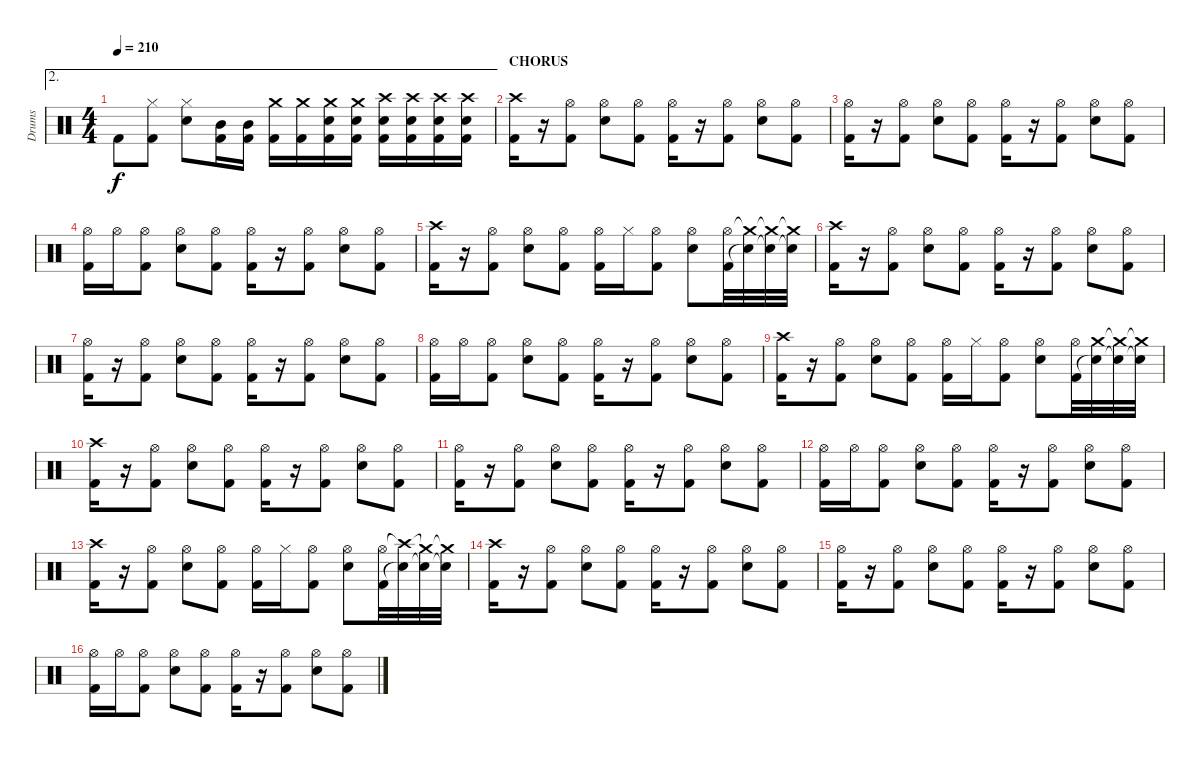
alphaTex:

\track ("Drums" "Drums") {instrument percussion}
\staff {score}
\articulation defaults
\ae 2
\ts (4 4)
\tempo 210
\clef neutral
\ks c "Kick (hit) 2".8{dy f}
("Hi-Hat (closed)" "Kick (hit) 2").8 ("Hi-Hat (closed)" "Electric Snare (hit)").8 ("Mid Tom (hit)" "Kick (hit) 2").16 ("Mid Tom (hit)" "Kick (hit) 2").16 ("Crash medium (hit)" "Kick (hit) 2").16 ("Crash medium (hit)" "Kick (hit) 2").16 ("Crash medium (hit)" "Electric Snare (hit)" "Kick (hit) 2").16 ("Crash medium (hit)" "Electric Snare (hit)" "Kick (hit) 2").16 ("Crash high (hit)" "Electric Snare (hit)" "Kick (hit) 2").16 ("Crash high (hit)" "Electric Snare (hit)" "Kick (hit) 2").16 ("Crash high (hit)" "Electric Snare (hit)" "Kick (hit) 2").16 ("Crash high (hit)" "Electric Snare (hit)" "Kick (hit) 2").16 |
\section ("" "CHORUS")
("Crash high (hit)" "Kick (hit) 2").16 r.16 ("Hi-Hat (open)" "Kick (hit) 2").8 ("Hi-Hat (open)" "Electric Snare (hit)").8 ("Hi-Hat (open)" "Kick (hit) 2").8 ("Hi-Hat (open)" "Kick (hit) 2").16 r.16 ("Hi-Hat (open)" "Kick (hit) 2").8 ("Hi-Hat (open)" "Electric Snare (hit)").8 ("Hi-Hat (open)" "Kick (hit) 2").8 |
("Hi-Hat (open)" "Kick (hit) 2").16 r.16 ("Hi-Hat (open)" "Kick (hit) 2").8 ("Hi-Hat (open)" "Electric Snare (hit)").8 ("Hi-Hat (open)" "Kick (hit) 2").8 ("Hi-Hat (open)" "Kick (hit) 2").16 r.16 ("Hi-Hat (open)" "Kick (hit) 2").8 ("Hi-Hat (open)" "Electric Snare (hit)").8 ("Hi-Hat (open)" "Kick (hit) 2").8 |
("Hi-Hat (open)" "Kick (hit) 2").16 "Hi-Hat (open)".16 ("Hi-Hat (open)" "Kick (hit) 2").8 ("Hi-Hat (open)" "Electric Snare (hit)").8 ("Hi-Hat (open)" "Kick (hit) 2").8 ("Hi-Hat (open)" "Kick (hit) 2").16 r.16 ("Hi-Hat (open)" "Kick (hit) 2").8 ("Hi-Hat (open)" "Electric Snare (hit)").8 ("Hi-Hat (open)" "Kick (hit) 2").8 |
("Crash high (hit)" "Kick (hit) 2").16 r.16 ("Hi-Hat (open)" "Kick (hit) 2").8 ("Hi-Hat (open)" "Electric Snare (hit)").8 ("Hi-Hat (open)" "Kick (hit) 2").8 ("Hi-Hat (open)" "Kick (hit) 2").16 "Hi-Hat (closed)".16 ("Hi-Hat (open)" "Kick (hit) 2").8 ("Hi-Hat (open)" "Electric Snare (hit)").8 ("Hi-Hat (open)" "Kick (hit) 2").32 ("Crash medium (hit)"{t} "Electric Snare (hit)"{t}).32 ("Crash medium (hit)"{t} "Electric Snare (hit)"{t}).32 ("Crash medium (hit)"{t} "Electric Snare (hit)"{t}).32 |
("Crash high (hit)" "Kick (hit) 2").16 r.16 ("Hi-Hat (open)" "Kick (hit) 2").8 ("Hi-Hat (open)" "Electric Snare (hit)").8 ("Hi-Hat (open)" "Kick (hit) 2").8 ("Hi-Hat (open)" "Kick (hit) 2").16 r.16 ("Hi-Hat (open)" "Kick (hit) 2").8 ("Hi-Hat (open)" "Electric Snare (hit)").8 ("Hi-Hat (open)" "Kick (hit) 2").8 |
("Hi-Hat (open)" "Kick (hit) 2").16 r.16 ("Hi-Hat (open)" "Kick (hit) 2").8 ("Hi-Hat (open)" "Electric Snare (hit)").8 ("Hi-Hat (open)" "Kick (hit) 2").8 ("Hi-Hat (open)" "Kick (hit) 2").16 r.16 ("Hi-Hat (open)" "Kick (hit) 2").8 ("Hi-Hat (open)" "Electric Snare (hit)").8 ("Hi-Hat (open)" "Kick (hit) 2").8 |
("Hi-Hat (open)" "Kick (hit) 2").16 "Hi-Hat (open)".16 ("Hi-Hat (open)" "Kick (hit) 2").8 ("Hi-Hat (open)" "Electric Snare (hit)").8 ("Hi-Hat (open)" "Kick (hit) 2").8 ("Hi-Hat (open)" "Kick (hit) 2").16 r.16 ("Hi-Hat (open)" "Kick (hit) 2").8 ("Hi-Hat (open)" "Electric Snare (hit)").8 ("Hi-Hat (open)" "Kick (hit) 2").8 |
("Crash high (hit)" "Kick (hit) 2").16 r.16 ("Hi-Hat (open)" "Kick (hit) 2").8 ("Hi-Hat (open)" "Electric Snare (hit)").8 ("Hi-Hat (open)" "Kick (hit) 2").8 ("Hi-Hat (open)" "Kick (hit) 2").16 "Hi-Hat (closed)".16 ("Hi-Hat (open)" "Kick (hit) 2").8 ("Hi-Hat (open)" "Electric Snare (hit)").8 ("Hi-Hat (open)" "Kick (hit) 2").32 ("Crash medium (hit)" "Electric Snare (hit)"{t}).32 ("Crash medium (hit)"{t} "Electric Snare (hit)"{t}).32 ("Crash medium (hit)"{t} "Electric Snare (hit)"{t}).32 |
("Crash high (hit)" "Kick (hit) 2").16 r.16 ("Hi-Hat (open)" "Kick (hit) 2").8 ("Hi-Hat (open)" "Electric Snare (hit)").8 ("Hi-Hat (open)" "Kick (hit) 2").8 ("Hi-Hat (open)" "Kick (hit) 2").16 r.16 ("Hi-Hat (open)" "Kick (hit) 2").8 ("Hi-Hat (open)" "Electric Snare (hit)").8 ("Hi-Hat (open)" "Kick (hit) 2").8 |
("Hi-Hat (open)" "Kick (hit) 2").16 r.16 ("Hi-Hat (open)" "Kick (hit) 2").8 ("Hi-Hat (open)" "Electric Snare (hit)").8 ("Hi-Hat (open)" "Kick (hit) 2").8 ("Hi-Hat (open)" "Kick (hit) 2").16 r.16 ("Hi-Hat (open)" "Kick (hit) 2").8 ("Hi-Hat (open)" "Electric Snare (hit)").8 ("Hi-Hat (open)" "Kick (hit) 2").8 |
("Hi-Hat (open)" "Kick (hit) 2").16 "Hi-Hat (open)".16 ("Hi-Hat (open)" "Kick (hit) 2").8 ("Hi-Hat (open)" "Electric Snare (hit)").8 ("Hi-Hat (open)" "Kick (hit) 2").8 ("Hi-Hat (open)" "Kick (hit) 2").16 r.16 ("Hi-Hat (open)" "Kick (hit) 2").8 ("Hi-Hat (open)" "Electric Snare (hit)").8 ("Hi-Hat (open)" "Kick (hit) 2").8 |
("Crash high (hit)" "Kick (hit) 2").16 r.16 ("Hi-Hat (open)" "Kick (hit) 2").8 ("Hi-Hat (open)" "Electric Snare (hit)").8 ("Hi-Hat (open)" "Kick (hit) 2").8 ("Hi-Hat (open)" "Kick (hit) 2").16 "Hi-Hat (closed)".16 ("Hi-Hat (open)" "Kick (hit) 2").8 ("Hi-Hat (open)" "Electric Snare (hit)").8 ("Hi-Hat (open)" "Kick (hit) 2").32 ("Crash high (hit)"{t} "Electric Snare (hit)"{t}).32 ("Crash medium (hit)"{t} "Electric Snare (hit)"{t}).32 ("Crash medium (hit)"{t} "Electric Snare (hit)"{t}).32 |
("Crash high (hit)" "Kick (hit) 2").16 r.16 ("Hi-Hat (open)" "Kick (hit) 2").8 ("Hi-Hat (open)" "Electric Snare (hit)").8 ("Hi-Hat (open)" "Kick (hit) 2").8 ("Hi-Hat (open)" "Kick (hit) 2").16 r.16 ("Hi-Hat (open)" "Kick (hit) 2").8 ("Hi-Hat (open)" "Electric Snare (hit)").8 ("Hi-Hat (open)" "Kick (hit) 2").8 |
("Hi-Hat (open)" "Kick (hit) 2").16 r.16 ("Hi-Hat (open)" "Kick (hit) 2").8 ("Hi-Hat (open)" "Electric Snare (hit)").8 ("Hi-Hat (open)" "Kick (hit) 2").8 ("Hi-Hat (open)" "Kick (hit) 2").16 r.16 ("Hi-Hat (open)" "Kick (hit) 2").8 ("Hi-Hat (open)" "Electric Snare (hit)").8 ("Hi-Hat (open)" "Kick (hit) 2").8 |
("Hi-Hat (open)" "Kick (hit) 2").16 "Hi-Hat (open)".16 ("Hi-Hat (open)" "Kick (hit) 2").8 ("Hi-Hat (open)" "Electric Snare (hit)").8 ("Hi-Hat (open)" "Kick (hit) 2").8 ("Hi-Hat (open)" "Kick (hit) 2").16 r.16 ("Hi-Hat (open)" "Kick (hit) 2").8 ("Hi-Hat (open)" "Electric Snare (hit)").8 ("Hi-Hat (open)" "Kick (hit) 2").8
